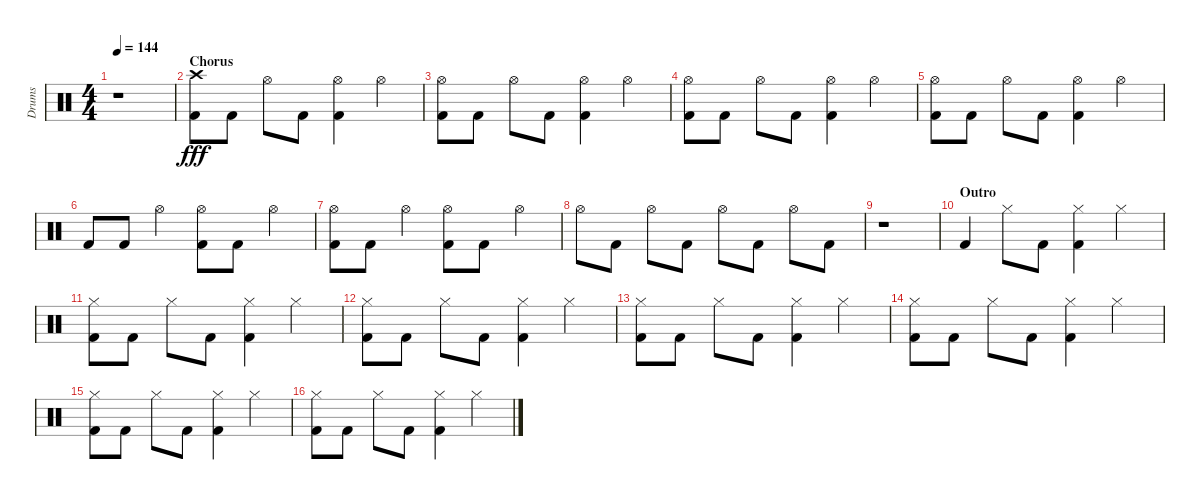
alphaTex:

\track ("Drums" "Drums") {instrument percussion}
\staff {score}
\articulation defaults
\ts (4 4)
\tempo 144
\clef neutral
\ks c
r.1{dy fff} |
\section ("" "Chorus")
("Crash high (hit)" "Kick (hit) 2").8 "Kick (hit) 2".8 "Hi-Hat (open)".8 "Kick (hit) 2".8 ("Hi-Hat (open)" "Kick (hit) 2").4 "Hi-Hat (open)".4 |
("Hi-Hat (open)" "Kick (hit) 2").8 "Kick (hit) 2".8 "Hi-Hat (open)".8 "Kick (hit) 2".8 ("Hi-Hat (open)" "Kick (hit) 2").4 "Hi-Hat (open)".4 |
("Hi-Hat (open)" "Kick (hit) 2").8 "Kick (hit) 2".8 "Hi-Hat (open)".8 "Kick (hit) 2".8 ("Hi-Hat (open)" "Kick (hit) 2").4 "Hi-Hat (open)".4 |
("Hi-Hat (open)" "Kick (hit) 2").8 "Kick (hit) 2".8 "Hi-Hat (open)".8 "Kick (hit) 2".8 ("Hi-Hat (open)" "Kick (hit) 2").4 "Hi-Hat (open)".4 |
"Kick (hit) 2".8 "Kick (hit) 2".8 "Hi-Hat (open)".4 ("Hi-Hat (open)" "Kick (hit) 2").8 "Kick (hit) 2".8 "Hi-Hat (open)".4 |
("Hi-Hat (open)" "Kick (hit) 2").8 "Kick (hit) 2".8 "Hi-Hat (open)".4 ("Hi-Hat (open)" "Kick (hit) 2").8 "Kick (hit) 2".8 "Hi-Hat (open)".4 |
"Hi-Hat (open)".8 "Kick (hit) 2".8 "Hi-Hat (open)".8 "Kick (hit) 2".8 "Hi-Hat (open)".8 "Kick (hit) 2".8 "Hi-Hat (open)".8 "Kick (hit) 2".8 |
r.1 |
\section ("" "Outro")
"Kick (hit) 2".4 "Hi-Hat (closed)".8 "Kick (hit) 2".8 ("Hi-Hat (closed)" "Kick (hit) 2").4 "Hi-Hat (closed)".4 |
("Hi-Hat (closed)" "Kick (hit) 2").8 "Kick (hit) 2".8 "Hi-Hat (closed)".8 "Kick (hit) 2".8 ("Hi-Hat (closed)" "Kick (hit) 2").4 "Hi-Hat (closed)".4 |
("Hi-Hat (closed)" "Kick (hit) 2").8 "Kick (hit) 2".8 "Hi-Hat (closed)".8 "Kick (hit) 2".8 ("Hi-Hat (closed)" "Kick (hit) 2").4 "Hi-Hat (closed)".4 |
("Hi-Hat (closed)" "Kick (hit) 2").8 "Kick (hit) 2".8 "Hi-Hat (closed)".8 "Kick (hit) 2".8 ("Hi-Hat (closed)" "Kick (hit) 2").4 "Hi-Hat (closed)".4 |
("Hi-Hat (closed)" "Kick (hit) 2").8 "Kick (hit) 2".8 "Hi-Hat (closed)".8 "Kick (hit) 2".8 ("Hi-Hat (closed)" "Kick (hit) 2").4 "Hi-Hat (closed)".4 |
("Hi-Hat (closed)" "Kick (hit) 2").8 "Kick (hit) 2".8 "Hi-Hat (closed)".8 "Kick (hit) 2".8 ("Hi-Hat (closed)" "Kick (hit) 2").4 "Hi-Hat (closed)".4 |
("Hi-Hat (closed)" "Kick (hit) 2").8 "Kick (hit) 2".8 "Hi-Hat (closed)".8 "Kick (hit) 2".8 ("Hi-Hat (closed)" "Kick (hit) 2").4 "Hi-Hat (closed)".4
